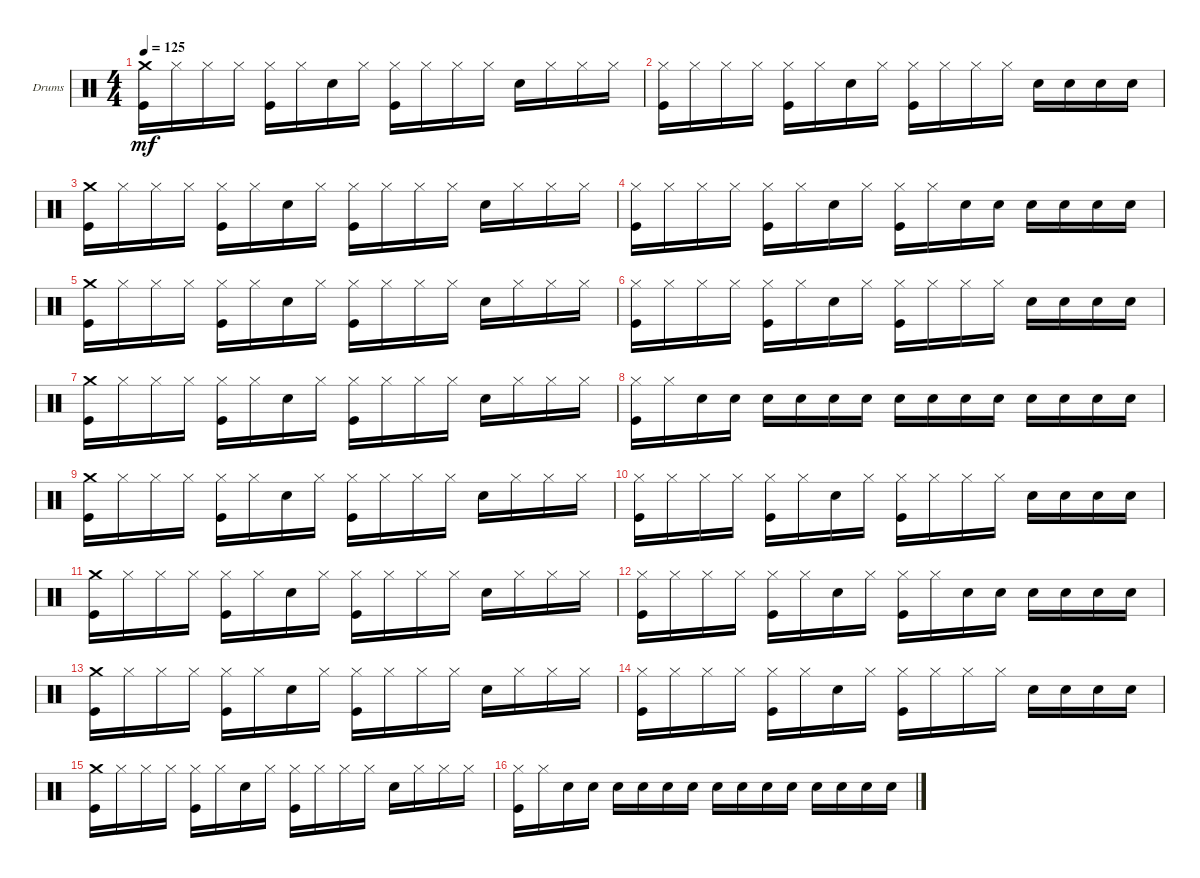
\defaultSystemsLayout 4
\bracketExtendMode groupsimilarinstruments
\firstSystemTrackNameOrientation horizontal
\otherSystemsTrackNameOrientation horizontal
\track ("Drumkit" "Drums") {instrument percussion}
\staff {score}
\articulation defaults
\ts (4 4)
\tempo 125
\clef neutral
\scale
0.333333
\ks c
("Kick (hit)" "Crash medium (hit)").16{dy mf} "Hi-Hat (closed)".16 "Hi-Hat (closed)".16 "Hi-Hat (closed)".16 ("Kick (hit)" "Hi-Hat (closed)").16 "Hi-Hat (closed)".16 "Snare (hit) 2".16 "Hi-Hat (closed)".16 ("Hi-Hat (closed)" "Kick (hit)").16 "Hi-Hat (closed)".16 "Hi-Hat (closed)".16 "Hi-Hat (closed)".16 "Snare (hit) 2".16 "Hi-Hat (closed)".16 "Hi-Hat (closed)".16 "Hi-Hat (closed)".16 |
\scale
0.333333 ("Kick (hit)" "Hi-Hat (closed)").16 "Hi-Hat (closed)".16 "Hi-Hat (closed)".16 "Hi-Hat (closed)".16 ("Kick (hit)" "Hi-Hat (closed)").16 "Hi-Hat (closed)".16 "Snare (hit) 2".16 "Hi-Hat (closed)".16 ("Hi-Hat (closed)" "Kick (hit)").16 "Hi-Hat (closed)".16 "Hi-Hat (closed)".16 "Hi-Hat (closed)".16 "Snare (hit) 2".16 "Snare (hit) 2".16 "Snare (hit) 2".16 "Snare (hit) 2".16 |
\scale
0.333333 ("Kick (hit)" "Crash medium (hit)").16 "Hi-Hat (closed)".16 "Hi-Hat (closed)".16 "Hi-Hat (closed)".16 ("Kick (hit)" "Hi-Hat (closed)").16 "Hi-Hat (closed)".16 "Snare (hit) 2".16 "Hi-Hat (closed)".16 ("Hi-Hat (closed)" "Kick (hit)").16 "Hi-Hat (closed)".16 "Hi-Hat (closed)".16 "Hi-Hat (closed)".16 "Snare (hit) 2".16 "Hi-Hat (closed)".16 "Hi-Hat (closed)".16 "Hi-Hat (closed)".16 |
\scale
0.333333 ("Kick (hit)" "Hi-Hat (closed)").16 "Hi-Hat (closed)".16 "Hi-Hat (closed)".16 "Hi-Hat (closed)".16 ("Kick (hit)" "Hi-Hat (closed)").16 "Hi-Hat (closed)".16 "Snare (hit) 2".16 "Hi-Hat (closed)".16 ("Hi-Hat (closed)" "Kick (hit)").16 "Hi-Hat (closed)".16 "Snare (hit) 2".16 "Snare (hit) 2".16 "Snare (hit) 2".16 "Snare (hit) 2".16 "Snare (hit) 2".16 "Snare (hit) 2".16 |
\scale
0.333333 ("Kick (hit)" "Crash medium (hit)").16 "Hi-Hat (closed)".16 "Hi-Hat (closed)".16 "Hi-Hat (closed)".16 ("Kick (hit)" "Hi-Hat (closed)").16 "Hi-Hat (closed)".16 "Snare (hit) 2".16 "Hi-Hat (closed)".16 ("Hi-Hat (closed)" "Kick (hit)").16 "Hi-Hat (closed)".16 "Hi-Hat (closed)".16 "Hi-Hat (closed)".16 "Snare (hit) 2".16 "Hi-Hat (closed)".16 "Hi-Hat (closed)".16 "Hi-Hat (closed)".16 |
\scale
0.333333 ("Kick (hit)" "Hi-Hat (closed)").16 "Hi-Hat (closed)".16 "Hi-Hat (closed)".16 "Hi-Hat (closed)".16 ("Kick (hit)" "Hi-Hat (closed)").16 "Hi-Hat (closed)".16 "Snare (hit) 2".16 "Hi-Hat (closed)".16 ("Hi-Hat (closed)" "Kick (hit)").16 "Hi-Hat (closed)".16 "Hi-Hat (closed)".16 "Hi-Hat (closed)".16 "Snare (hit) 2".16 "Snare (hit) 2".16 "Snare (hit) 2".16 "Snare (hit) 2".16 |
\scale
0.333333 ("Kick (hit)" "Crash medium (hit)").16 "Hi-Hat (closed)".16 "Hi-Hat (closed)".16 "Hi-Hat (closed)".16 ("Kick (hit)" "Hi-Hat (closed)").16 "Hi-Hat (closed)".16 "Snare (hit) 2".16 "Hi-Hat (closed)".16 ("Hi-Hat (closed)" "Kick (hit)").16 "Hi-Hat (closed)".16 "Hi-Hat (closed)".16 "Hi-Hat (closed)".16 "Snare (hit) 2".16 "Hi-Hat (closed)".16 "Hi-Hat (closed)".16 "Hi-Hat (closed)".16 |
\scale
0.333333 ("Hi-Hat (closed)" "Kick (hit)").16 "Hi-Hat (closed)".16 "Snare (hit) 2".16 "Snare (hit) 2".16 "Snare (hit) 2".16 "Snare (hit) 2".16 "Snare (hit) 2".16 "Snare (hit) 2".16 "Snare (hit) 2".16 "Snare (hit) 2".16 "Snare (hit) 2".16 "Snare (hit) 2".16 "Snare (hit) 2".16 "Snare (hit) 2".16 "Snare (hit) 2".16 "Snare (hit) 2".16 |
\scale
0.333333 ("Kick (hit)" "Crash medium (hit)").16 "Hi-Hat (closed)".16 "Hi-Hat (closed)".16 "Hi-Hat (closed)".16 ("Kick (hit)" "Hi-Hat (closed)").16 "Hi-Hat (closed)".16 "Snare (hit) 2".16 "Hi-Hat (closed)".16 ("Hi-Hat (closed)" "Kick (hit)").16 "Hi-Hat (closed)".16 "Hi-Hat (closed)".16 "Hi-Hat (closed)".16 "Snare (hit) 2".16 "Hi-Hat (closed)".16 "Hi-Hat (closed)".16 "Hi-Hat (closed)".16 |
\scale
0.333333 ("Kick (hit)" "Hi-Hat (closed)").16 "Hi-Hat (closed)".16 "Hi-Hat (closed)".16 "Hi-Hat (closed)".16 ("Kick (hit)" "Hi-Hat (closed)").16 "Hi-Hat (closed)".16 "Snare (hit) 2".16 "Hi-Hat (closed)".16 ("Hi-Hat (closed)" "Kick (hit)").16 "Hi-Hat (closed)".16 "Hi-Hat (closed)".16 "Hi-Hat (closed)".16 "Snare (hit) 2".16 "Snare (hit) 2".16 "Snare (hit) 2".16 "Snare (hit) 2".16 |
\scale
0.333333 ("Kick (hit)" "Crash medium (hit)").16 "Hi-Hat (closed)".16 "Hi-Hat (closed)".16 "Hi-Hat (closed)".16 ("Kick (hit)" "Hi-Hat (closed)").16 "Hi-Hat (closed)".16 "Snare (hit) 2".16 "Hi-Hat (closed)".16 ("Hi-Hat (closed)" "Kick (hit)").16 "Hi-Hat (closed)".16 "Hi-Hat (closed)".16 "Hi-Hat (closed)".16 "Snare (hit) 2".16 "Hi-Hat (closed)".16 "Hi-Hat (closed)".16 "Hi-Hat (closed)".16 |
\scale
0.333333 ("Kick (hit)" "Hi-Hat (closed)").16 "Hi-Hat (closed)".16 "Hi-Hat (closed)".16 "Hi-Hat (closed)".16 ("Kick (hit)" "Hi-Hat (closed)").16 "Hi-Hat (closed)".16 "Snare (hit) 2".16 "Hi-Hat (closed)".16 ("Hi-Hat (closed)" "Kick (hit)").16 "Hi-Hat (closed)".16 "Snare (hit) 2".16 "Snare (hit) 2".16 "Snare (hit) 2".16 "Snare (hit) 2".16 "Snare (hit) 2".16 "Snare (hit) 2".16 |
\scale
0.333333 ("Kick (hit)" "Crash medium (hit)").16 "Hi-Hat (closed)".16 "Hi-Hat (closed)".16 "Hi-Hat (closed)".16 ("Kick (hit)" "Hi-Hat (closed)").16 "Hi-Hat (closed)".16 "Snare (hit) 2".16 "Hi-Hat (closed)".16 ("Hi-Hat (closed)" "Kick (hit)").16 "Hi-Hat (closed)".16 "Hi-Hat (closed)".16 "Hi-Hat (closed)".16 "Snare (hit) 2".16 "Hi-Hat (closed)".16 "Hi-Hat (closed)".16 "Hi-Hat (closed)".16 |
\scale
0.333333 ("Kick (hit)" "Hi-Hat (closed)").16 "Hi-Hat (closed)".16 "Hi-Hat (closed)".16 "Hi-Hat (closed)".16 ("Kick (hit)" "Hi-Hat (closed)").16 "Hi-Hat (closed)".16 "Snare (hit) 2".16 "Hi-Hat (closed)".16 ("Hi-Hat (closed)" "Kick (hit)").16 "Hi-Hat (closed)".16 "Hi-Hat (closed)".16 "Hi-Hat (closed)".16 "Snare (hit) 2".16 "Snare (hit) 2".16 "Snare (hit) 2".16 "Snare (hit) 2".16 |
\scale
0.333333 ("Kick (hit)" "Crash medium (hit)").16 "Hi-Hat (closed)".16 "Hi-Hat (closed)".16 "Hi-Hat (closed)".16 ("Kick (hit)" "Hi-Hat (closed)").16 "Hi-Hat (closed)".16 "Snare (hit) 2".16 "Hi-Hat (closed)".16 ("Hi-Hat (closed)" "Kick (hit)").16 "Hi-Hat (closed)".16 "Hi-Hat (closed)".16 "Hi-Hat (closed)".16 "Snare (hit) 2".16 "Hi-Hat (closed)".16 "Hi-Hat (closed)".16 "Hi-Hat (closed)".16 |
\scale
0.333333 ("Hi-Hat (closed)" "Kick (hit)").16 "Hi-Hat (closed)".16 "Snare (hit) 2".16 "Snare (hit) 2".16 "Snare (hit) 2".16 "Snare (hit) 2".16 "Snare (hit) 2".16 "Snare (hit) 2".16 "Snare (hit) 2".16 "Snare (hit) 2".16 "Snare (hit) 2".16 "Snare (hit) 2".16 "Snare (hit) 2".16 "Snare (hit) 2".16 "Snare (hit) 2".16 "Snare (hit) 2".16
